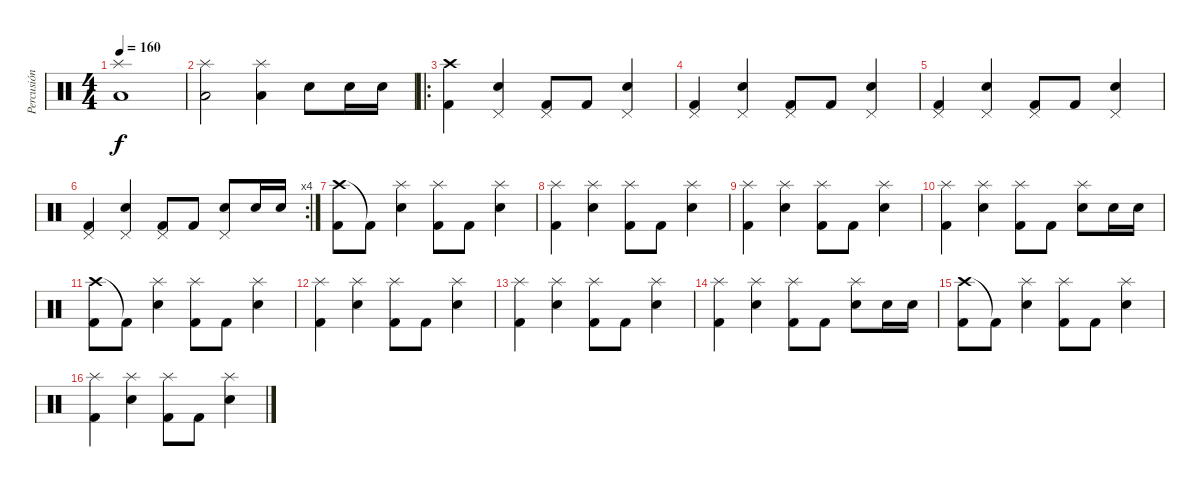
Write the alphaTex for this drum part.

\track ("Percusión" "Percusión") {instrument percussion}
\staff {score}
\articulation defaults
\ts (4 4)
\tempo 160
\clef neutral
\ks c
("Low Floor Tom (hit)" "Splash (hit)").1{dy f} |
("Low Floor Tom (hit)" "Splash (hit)").2 ("Low Floor Tom (hit)" "Splash (hit)").4 "Electric Snare (hit)".8 "Electric Snare (hit)".16 "Electric Snare (hit)".16 |
\ro
("Crash high (hit)" "Kick (hit) 2").4 ("Pedal Hi-Hat (hit)" "Electric Snare (hit)").4 ("Pedal Hi-Hat (hit)" "Kick (hit) 2").8 "Kick (hit) 2".8 ("Pedal Hi-Hat (hit)" "Electric Snare (hit)").4 |
("Pedal Hi-Hat (hit)" "Kick (hit) 2").4 ("Pedal Hi-Hat (hit)" "Electric Snare (hit)").4 ("Pedal Hi-Hat (hit)" "Kick (hit) 2").8 "Kick (hit) 2".8 ("Pedal Hi-Hat (hit)" "Electric Snare (hit)").4 |
("Pedal Hi-Hat (hit)" "Kick (hit) 2").4 ("Pedal Hi-Hat (hit)" "Electric Snare (hit)").4 ("Pedal Hi-Hat (hit)" "Kick (hit) 2").8 "Kick (hit) 2".8 ("Pedal Hi-Hat (hit)" "Electric Snare (hit)").4 |
\rc 4
("Pedal Hi-Hat (hit)" "Kick (hit) 2").4 ("Pedal Hi-Hat (hit)" "Electric Snare (hit)").4 ("Pedal Hi-Hat (hit)" "Kick (hit) 2").8 "Kick (hit) 2".8 ("Pedal Hi-Hat (hit)" "Electric Snare (hit)").8 "Electric Snare (hit)".16 "Electric Snare (hit)".16 |
("Crash high (hit)" "Kick (hit) 2").8 "Kick (hit) 2"{t}.8 ("Splash (hit)" "Electric Snare (hit)").4 ("Splash (hit)" "Kick (hit) 2").8 "Kick (hit) 2".8 ("Splash (hit)" "Electric Snare (hit)").4 |
("Splash (hit)" "Kick (hit) 2").4 ("Splash (hit)" "Electric Snare (hit)").4 ("Splash (hit)" "Kick (hit) 2").8 "Kick (hit) 2".8 ("Splash (hit)" "Electric Snare (hit)").4 |
("Splash (hit)" "Kick (hit) 2").4 ("Splash (hit)" "Electric Snare (hit)").4 ("Splash (hit)" "Kick (hit) 2").8 "Kick (hit) 2".8 ("Splash (hit)" "Electric Snare (hit)").4 |
("Splash (hit)" "Kick (hit) 2").4 ("Splash (hit)" "Electric Snare (hit)").4 ("Splash (hit)" "Kick (hit) 2").8 "Kick (hit) 2".8 ("Splash (hit)" "Electric Snare (hit)").8 "Electric Snare (hit)".16 "Electric Snare (hit)".16 |
("Crash high (hit)" "Kick (hit) 2").8 "Kick (hit) 2"{t}.8 ("Splash (hit)" "Electric Snare (hit)").4 ("Splash (hit)" "Kick (hit) 2").8 "Kick (hit) 2".8 ("Splash (hit)" "Electric Snare (hit)").4 |
("Splash (hit)" "Kick (hit) 2").4 ("Splash (hit)" "Electric Snare (hit)").4 ("Splash (hit)" "Kick (hit) 2").8 "Kick (hit) 2".8 ("Splash (hit)" "Electric Snare (hit)").4 |
("Splash (hit)" "Kick (hit) 2").4 ("Splash (hit)" "Electric Snare (hit)").4 ("Splash (hit)" "Kick (hit) 2").8 "Kick (hit) 2".8 ("Splash (hit)" "Electric Snare (hit)").4 |
("Splash (hit)" "Kick (hit) 2").4 ("Splash (hit)" "Electric Snare (hit)").4 ("Splash (hit)" "Kick (hit) 2").8 "Kick (hit) 2".8 ("Splash (hit)" "Electric Snare (hit)").8 "Electric Snare (hit)".16 "Electric Snare (hit)".16 |
("Crash high (hit)" "Kick (hit) 2").8 "Kick (hit) 2"{t}.8 ("Splash (hit)" "Electric Snare (hit)").4 ("Splash (hit)" "Kick (hit) 2").8 "Kick (hit) 2".8 ("Splash (hit)" "Electric Snare (hit)").4 |
("Splash (hit)" "Kick (hit) 2").4 ("Splash (hit)" "Electric Snare (hit)").4 ("Splash (hit)" "Kick (hit) 2").8 "Kick (hit) 2".8 ("Splash (hit)" "Electric Snare (hit)").4
